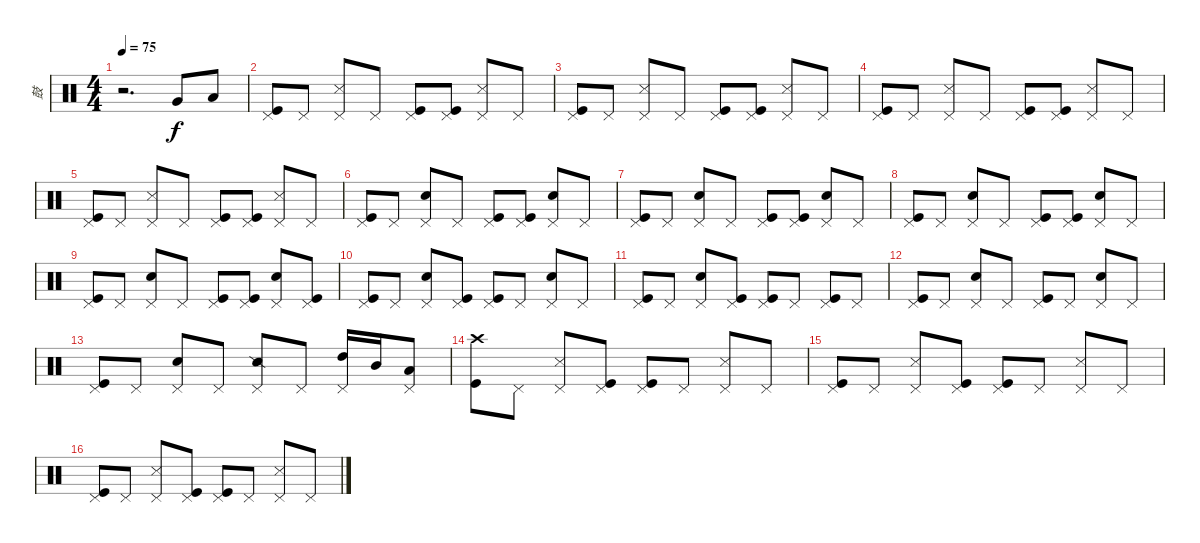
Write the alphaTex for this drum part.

\track ("鼓" "鼓") {instrument percussion}
\staff {score}
\articulation defaults
\ts (4 4)
\tempo 75
\clef neutral
\ks c
r.2{d dy f} "Very Low Tom (hit)".8 "Low Floor Tom (hit)".8 |
("Kick (hit)" "Pedal Hi-Hat (hit)").8 "Pedal Hi-Hat (hit)".8 ("Snare (side stick) 3" "Pedal Hi-Hat (hit)").8 "Pedal Hi-Hat (hit)".8 ("Kick (hit)" "Pedal Hi-Hat (hit)").8 ("Kick (hit)" "Pedal Hi-Hat (hit)").8 ("Snare (side stick) 3" "Pedal Hi-Hat (hit)").8 "Pedal Hi-Hat (hit)".8 |
("Kick (hit)" "Pedal Hi-Hat (hit)").8 "Pedal Hi-Hat (hit)".8 ("Snare (side stick) 3" "Pedal Hi-Hat (hit)").8 "Pedal Hi-Hat (hit)".8 ("Kick (hit)" "Pedal Hi-Hat (hit)").8 ("Kick (hit)" "Pedal Hi-Hat (hit)").8 ("Snare (side stick) 3" "Pedal Hi-Hat (hit)").8 "Pedal Hi-Hat (hit)".8 |
("Kick (hit)" "Pedal Hi-Hat (hit)").8 "Pedal Hi-Hat (hit)".8 ("Snare (side stick) 3" "Pedal Hi-Hat (hit)").8 "Pedal Hi-Hat (hit)".8 ("Kick (hit)" "Pedal Hi-Hat (hit)").8 ("Kick (hit)" "Pedal Hi-Hat (hit)").8 ("Snare (side stick) 3" "Pedal Hi-Hat (hit)").8 "Pedal Hi-Hat (hit)".8 |
("Kick (hit)" "Pedal Hi-Hat (hit)").8 "Pedal Hi-Hat (hit)".8 ("Snare (side stick) 3" "Pedal Hi-Hat (hit)").8 "Pedal Hi-Hat (hit)".8 ("Kick (hit)" "Pedal Hi-Hat (hit)").8 ("Kick (hit)" "Pedal Hi-Hat (hit)").8 ("Snare (side stick) 3" "Pedal Hi-Hat (hit)").8 "Pedal Hi-Hat (hit)".8 |
("Kick (hit)" "Pedal Hi-Hat (hit)").8 "Pedal Hi-Hat (hit)".8 ("Snare (hit) 2" "Pedal Hi-Hat (hit)").8 "Pedal Hi-Hat (hit)".8 ("Kick (hit)" "Pedal Hi-Hat (hit)").8 ("Kick (hit)" "Pedal Hi-Hat (hit)").8 ("Snare (hit) 2" "Pedal Hi-Hat (hit)").8 "Pedal Hi-Hat (hit)".8 |
("Kick (hit)" "Pedal Hi-Hat (hit)").8 "Pedal Hi-Hat (hit)".8 ("Snare (hit) 2" "Pedal Hi-Hat (hit)").8 "Pedal Hi-Hat (hit)".8 ("Kick (hit)" "Pedal Hi-Hat (hit)").8 ("Kick (hit)" "Pedal Hi-Hat (hit)").8 ("Snare (hit) 2" "Pedal Hi-Hat (hit)").8 "Pedal Hi-Hat (hit)".8 |
("Kick (hit)" "Pedal Hi-Hat (hit)").8 "Pedal Hi-Hat (hit)".8 ("Snare (hit) 2" "Pedal Hi-Hat (hit)").8 "Pedal Hi-Hat (hit)".8 ("Kick (hit)" "Pedal Hi-Hat (hit)").8 ("Kick (hit)" "Pedal Hi-Hat (hit)").8 ("Snare (hit) 2" "Pedal Hi-Hat (hit)").8 "Pedal Hi-Hat (hit)".8 |
("Kick (hit)" "Pedal Hi-Hat (hit)").8 "Pedal Hi-Hat (hit)".8 ("Snare (hit) 2" "Pedal Hi-Hat (hit)").8 "Pedal Hi-Hat (hit)".8 ("Kick (hit)" "Pedal Hi-Hat (hit)").8 ("Kick (hit)" "Pedal Hi-Hat (hit)").8 ("Snare (hit) 2" "Pedal Hi-Hat (hit)").8 ("Kick (hit)" "Pedal Hi-Hat (hit)").8 |
("Kick (hit)" "Pedal Hi-Hat (hit)").8 "Pedal Hi-Hat (hit)".8 ("Snare (hit) 2" "Pedal Hi-Hat (hit)").8 ("Kick (hit)" "Pedal Hi-Hat (hit)").8 ("Kick (hit)" "Pedal Hi-Hat (hit)").8 "Pedal Hi-Hat (hit)".8 ("Snare (hit) 2" "Pedal Hi-Hat (hit)").8 "Pedal Hi-Hat (hit)".8 |
("Kick (hit)" "Pedal Hi-Hat (hit)").8 "Pedal Hi-Hat (hit)".8 ("Snare (hit) 2" "Pedal Hi-Hat (hit)").8 ("Kick (hit)" "Pedal Hi-Hat (hit)").8 ("Kick (hit)" "Pedal Hi-Hat (hit)").8 "Pedal Hi-Hat (hit)".8 ("Kick (hit)" "Pedal Hi-Hat (hit)").8 "Pedal Hi-Hat (hit)".8 |
("Kick (hit)" "Pedal Hi-Hat (hit)").8 "Pedal Hi-Hat (hit)".8 ("Snare (hit) 2" "Pedal Hi-Hat (hit)").8 "Pedal Hi-Hat (hit)".8 ("Kick (hit)" "Pedal Hi-Hat (hit)").8 "Pedal Hi-Hat (hit)".8 ("Snare (hit) 2" "Pedal Hi-Hat (hit)").8 "Pedal Hi-Hat (hit)".8 |
("Kick (hit)" "Pedal Hi-Hat (hit)").8 "Pedal Hi-Hat (hit)".8 ("Snare (hit) 2" "Pedal Hi-Hat (hit)").8 "Pedal Hi-Hat (hit)".8 ("Snare (side stick) 2" "Pedal Hi-Hat (hit)").8 "Pedal Hi-Hat (hit)".8 ("High Tom (hit)" "Pedal Hi-Hat (hit)").16 "Mid Tom (hit)".16 ("Low Tom (hit)" "Pedal Hi-Hat (hit)").8 |
("Kick (hit)" "Crash high (hit)").8 "Pedal Hi-Hat (hit)".8 ("Snare (side stick) 3" "Pedal Hi-Hat (hit)").8 ("Kick (hit)" "Pedal Hi-Hat (hit)").8 ("Kick (hit)" "Pedal Hi-Hat (hit)").8 "Pedal Hi-Hat (hit)".8 ("Snare (side stick) 3" "Pedal Hi-Hat (hit)").8 "Pedal Hi-Hat (hit)".8 |
("Kick (hit)" "Pedal Hi-Hat (hit)").8 "Pedal Hi-Hat (hit)".8 ("Snare (side stick) 3" "Pedal Hi-Hat (hit)").8 ("Kick (hit)" "Pedal Hi-Hat (hit)").8 ("Kick (hit)" "Pedal Hi-Hat (hit)").8 "Pedal Hi-Hat (hit)".8 ("Snare (side stick) 3" "Pedal Hi-Hat (hit)").8 "Pedal Hi-Hat (hit)".8 |
("Kick (hit)" "Pedal Hi-Hat (hit)").8 "Pedal Hi-Hat (hit)".8 ("Snare (side stick) 3" "Pedal Hi-Hat (hit)").8 ("Kick (hit)" "Pedal Hi-Hat (hit)").8 ("Kick (hit)" "Pedal Hi-Hat (hit)").8 "Pedal Hi-Hat (hit)".8 ("Snare (side stick) 3" "Pedal Hi-Hat (hit)").8 "Pedal Hi-Hat (hit)".8
